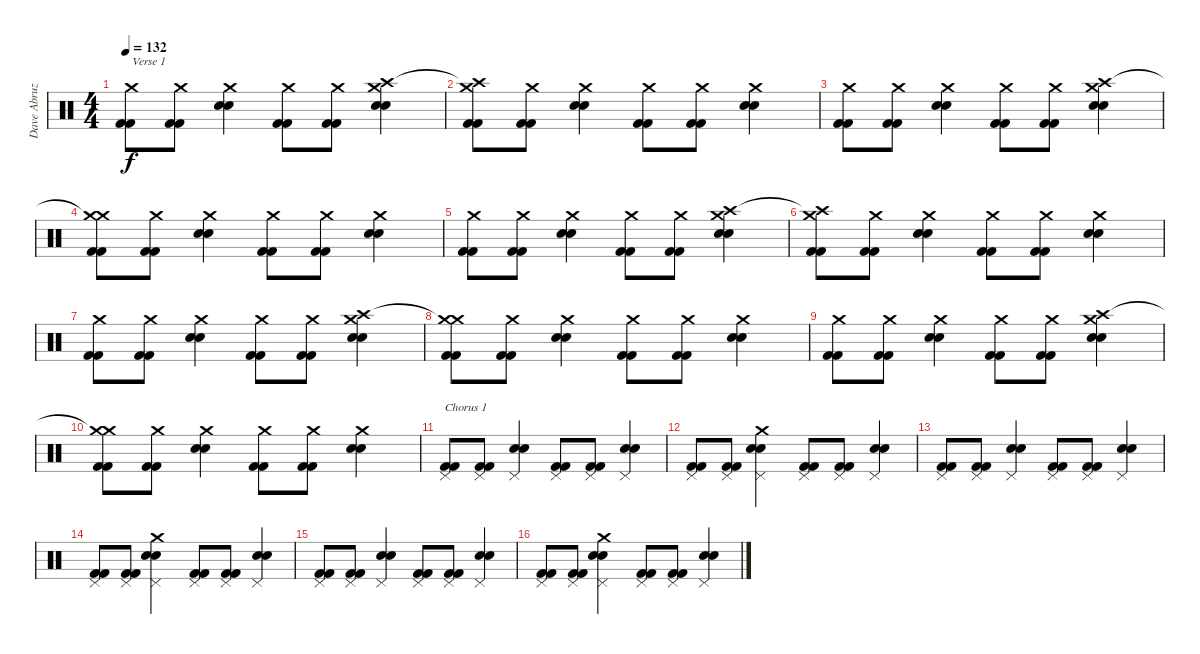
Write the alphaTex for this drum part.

\track ("Dave Abruzzesse" "Dave Abruz") {instrument percussion}
\staff {score}
\articulation defaults
\ts (4 4)
\tempo 132
\clef neutral
\ks c
("Crash medium (hit)" "Kick (hit) 2" "Kick (hit) 2").8{txt "Verse 1" dy f} ("Crash medium (hit)" "Kick (hit) 2" "Kick (hit) 2").8 ("Crash medium (hit)" "Snare (hit) 2" "Snare (hit) 2").4 ("Crash medium (hit)" "Kick (hit) 2" "Kick (hit) 2").8 ("Crash medium (hit)" "Kick (hit) 2" "Kick (hit) 2").8 ("Crash high (hit)" "Crash medium (hit)" "Snare (hit) 2" "Snare (hit) 2").4 |
("Crash high (hit)"{t} "Crash medium (hit)" "Kick (hit) 2" "Kick (hit) 2").8 ("Crash medium (hit)" "Kick (hit) 2" "Kick (hit) 2").8 ("Crash medium (hit)" "Snare (hit) 2" "Snare (hit) 2").4 ("Crash medium (hit)" "Kick (hit) 2" "Kick (hit) 2").8 ("Crash medium (hit)" "Kick (hit) 2" "Kick (hit) 2").8 ("Crash medium (hit)" "Snare (hit) 2" "Snare (hit) 2").4 |
("Crash medium (hit)" "Kick (hit) 2" "Kick (hit) 2").8 ("Crash medium (hit)" "Kick (hit) 2" "Kick (hit) 2").8 ("Crash medium (hit)" "Snare (hit) 2" "Snare (hit) 2").4 ("Crash medium (hit)" "Kick (hit) 2" "Kick (hit) 2").8 ("Crash medium (hit)" "Kick (hit) 2" "Kick (hit) 2").8 ("Crash high (hit)" "Crash medium (hit)" "Snare (hit) 2" "Snare (hit) 2").4 |
("Crash medium (hit)"{t} "Crash medium (hit)" "Kick (hit) 2" "Kick (hit) 2").8 ("Crash medium (hit)" "Kick (hit) 2" "Kick (hit) 2").8 ("Crash medium (hit)" "Snare (hit) 2" "Snare (hit) 2").4 ("Crash medium (hit)" "Kick (hit) 2" "Kick (hit) 2").8 ("Crash medium (hit)" "Kick (hit) 2" "Kick (hit) 2").8 ("Crash medium (hit)" "Snare (hit) 2" "Snare (hit) 2").4 |
("Crash medium (hit)" "Kick (hit) 2" "Kick (hit) 2").8 ("Crash medium (hit)" "Kick (hit) 2" "Kick (hit) 2").8 ("Crash medium (hit)" "Snare (hit) 2" "Snare (hit) 2").4 ("Crash medium (hit)" "Kick (hit) 2" "Kick (hit) 2").8 ("Crash medium (hit)" "Kick (hit) 2" "Kick (hit) 2").8 ("Crash high (hit)" "Crash medium (hit)" "Snare (hit) 2" "Snare (hit) 2").4 |
("Crash high (hit)"{t} "Crash medium (hit)" "Kick (hit) 2" "Kick (hit) 2").8 ("Crash medium (hit)" "Kick (hit) 2" "Kick (hit) 2").8 ("Crash medium (hit)" "Snare (hit) 2" "Snare (hit) 2").4 ("Crash medium (hit)" "Kick (hit) 2" "Kick (hit) 2").8 ("Crash medium (hit)" "Kick (hit) 2" "Kick (hit) 2").8 ("Crash medium (hit)" "Snare (hit) 2" "Snare (hit) 2").4 |
("Crash medium (hit)" "Kick (hit) 2" "Kick (hit) 2").8 ("Crash medium (hit)" "Kick (hit) 2" "Kick (hit) 2").8 ("Crash medium (hit)" "Snare (hit) 2" "Snare (hit) 2").4 ("Crash medium (hit)" "Kick (hit) 2" "Kick (hit) 2").8 ("Crash medium (hit)" "Kick (hit) 2" "Kick (hit) 2").8 ("Crash high (hit)" "Crash medium (hit)" "Snare (hit) 2" "Snare (hit) 2").4 |
("Crash medium (hit)"{t} "Crash medium (hit)" "Kick (hit) 2" "Kick (hit) 2").8 ("Crash medium (hit)" "Kick (hit) 2" "Kick (hit) 2").8 ("Crash medium (hit)" "Snare (hit) 2" "Snare (hit) 2").4 ("Crash medium (hit)" "Kick (hit) 2" "Kick (hit) 2").8 ("Crash medium (hit)" "Kick (hit) 2" "Kick (hit) 2").8 ("Crash medium (hit)" "Snare (hit) 2" "Snare (hit) 2").4 |
("Crash medium (hit)" "Kick (hit) 2" "Kick (hit) 2").8 ("Crash medium (hit)" "Kick (hit) 2" "Kick (hit) 2").8 ("Crash medium (hit)" "Snare (hit) 2" "Snare (hit) 2").4 ("Crash medium (hit)" "Kick (hit) 2" "Kick (hit) 2").8 ("Crash medium (hit)" "Kick (hit) 2" "Kick (hit) 2").8 ("Crash high (hit)" "Crash medium (hit)" "Snare (hit) 2" "Snare (hit) 2").4 |
("Crash medium (hit)"{t} "Crash medium (hit)" "Kick (hit) 2" "Kick (hit) 2").8 ("Crash medium (hit)" "Kick (hit) 2" "Kick (hit) 2").8 ("Crash medium (hit)" "Snare (hit) 2" "Snare (hit) 2").4 ("Crash medium (hit)" "Kick (hit) 2" "Kick (hit) 2").8 ("Crash medium (hit)" "Kick (hit) 2" "Kick (hit) 2").8 ("Crash medium (hit)" "Snare (hit) 2" "Snare (hit) 2").4 |
("Pedal Hi-Hat (hit)" "Kick (hit) 2" "Kick (hit) 2").8{txt "Chorus 1"} ("Pedal Hi-Hat (hit)" "Kick (hit) 2" "Kick (hit) 2").8 ("Pedal Hi-Hat (hit)" "Snare (hit) 2" "Snare (hit) 2").4 ("Pedal Hi-Hat (hit)" "Kick (hit) 2" "Kick (hit) 2").8 ("Pedal Hi-Hat (hit)" "Kick (hit) 2" "Kick (hit) 2").8 ("Pedal Hi-Hat (hit)" "Snare (hit) 2" "Snare (hit) 2").4 |
("Pedal Hi-Hat (hit)" "Kick (hit) 2" "Kick (hit) 2").8 ("Pedal Hi-Hat (hit)" "Kick (hit) 2" "Kick (hit) 2").8 ("Crash medium (hit)" "Pedal Hi-Hat (hit)" "Snare (hit) 2" "Snare (hit) 2").4 ("Pedal Hi-Hat (hit)" "Kick (hit) 2" "Kick (hit) 2").8 ("Pedal Hi-Hat (hit)" "Kick (hit) 2" "Kick (hit) 2").8 ("Pedal Hi-Hat (hit)" "Snare (hit) 2" "Snare (hit) 2").4 |
("Pedal Hi-Hat (hit)" "Kick (hit) 2" "Kick (hit) 2").8 ("Pedal Hi-Hat (hit)" "Kick (hit) 2" "Kick (hit) 2").8 ("Pedal Hi-Hat (hit)" "Snare (hit) 2" "Snare (hit) 2").4 ("Pedal Hi-Hat (hit)" "Kick (hit) 2" "Kick (hit) 2").8 ("Pedal Hi-Hat (hit)" "Kick (hit) 2" "Kick (hit) 2").8 ("Pedal Hi-Hat (hit)" "Snare (hit) 2" "Snare (hit) 2").4 |
("Pedal Hi-Hat (hit)" "Kick (hit) 2" "Kick (hit) 2").8 ("Pedal Hi-Hat (hit)" "Kick (hit) 2" "Kick (hit) 2").8 ("Crash medium (hit)" "Pedal Hi-Hat (hit)" "Snare (hit) 2" "Snare (hit) 2").4 ("Pedal Hi-Hat (hit)" "Kick (hit) 2" "Kick (hit) 2").8 ("Pedal Hi-Hat (hit)" "Kick (hit) 2" "Kick (hit) 2").8 ("Pedal Hi-Hat (hit)" "Snare (hit) 2" "Snare (hit) 2").4 |
("Pedal Hi-Hat (hit)" "Kick (hit) 2" "Kick (hit) 2").8 ("Pedal Hi-Hat (hit)" "Kick (hit) 2" "Kick (hit) 2").8 ("Pedal Hi-Hat (hit)" "Snare (hit) 2" "Snare (hit) 2").4 ("Pedal Hi-Hat (hit)" "Kick (hit) 2" "Kick (hit) 2").8 ("Pedal Hi-Hat (hit)" "Kick (hit) 2" "Kick (hit) 2").8 ("Pedal Hi-Hat (hit)" "Snare (hit) 2" "Snare (hit) 2").4 |
("Pedal Hi-Hat (hit)" "Kick (hit) 2" "Kick (hit) 2").8 ("Pedal Hi-Hat (hit)" "Kick (hit) 2" "Kick (hit) 2").8 ("Crash medium (hit)" "Pedal Hi-Hat (hit)" "Snare (hit) 2" "Snare (hit) 2").4 ("Pedal Hi-Hat (hit)" "Kick (hit) 2" "Kick (hit) 2").8 ("Pedal Hi-Hat (hit)" "Kick (hit) 2" "Kick (hit) 2").8 ("Pedal Hi-Hat (hit)" "Snare (hit) 2" "Snare (hit) 2").4
